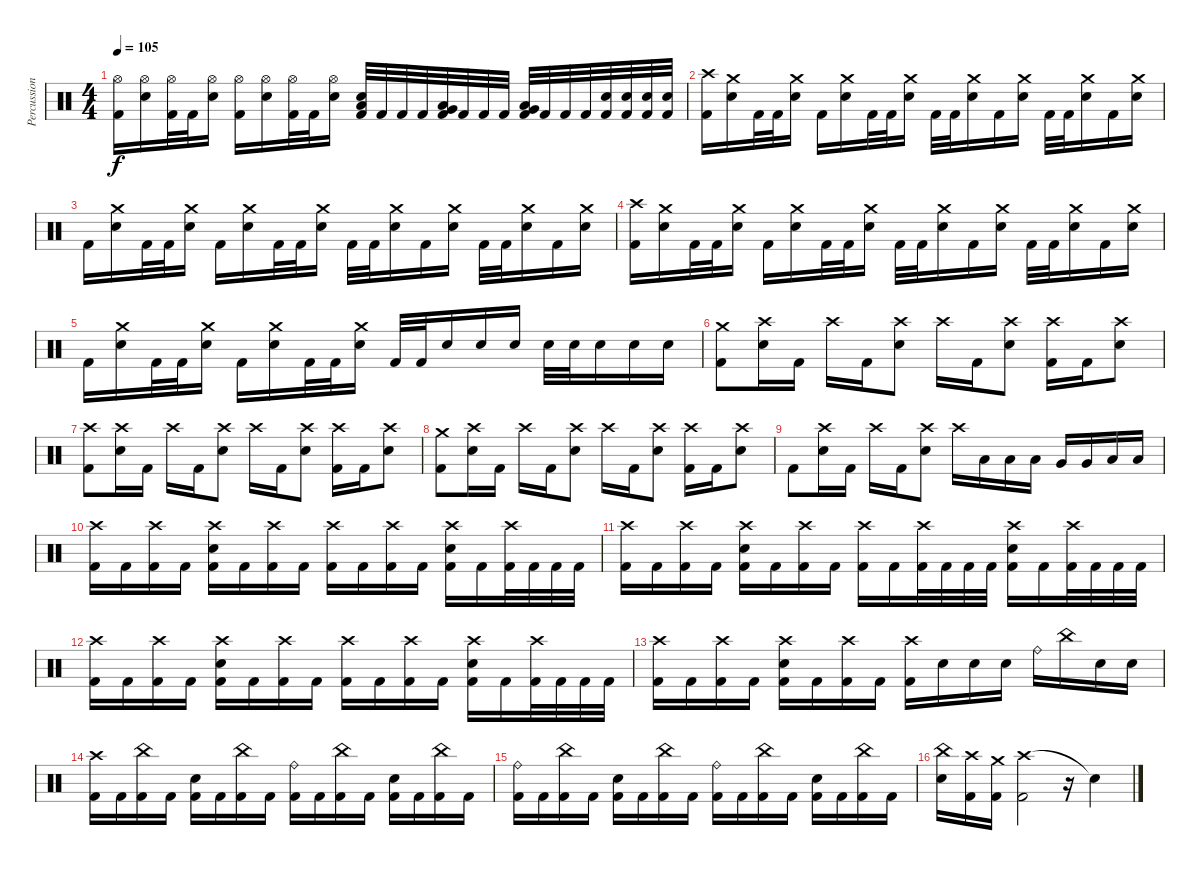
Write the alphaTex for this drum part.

\track ("Percussions" "Percussion") {instrument percussion}
\staff {score}
\articulation defaults
\ts (4 4)
\tempo 105
\clef neutral
\ks c
("Hi-Hat (open)" "Kick (hit) 2").16{dy f} ("Hi-Hat (open)" "Electric Snare (hit)").16 ("Hi-Hat (open)" "Kick (hit) 2").32 "Kick (hit) 2".32 ("Hi-Hat (open)" "Electric Snare (hit)").16 ("Hi-Hat (open)" "Kick (hit) 2").16 ("Hi-Hat (open)" "Electric Snare (hit)").16 ("Hi-Hat (open)" "Kick (hit) 2").32 "Kick (hit) 2".32 ("Hi-Hat (open)" "Electric Snare (hit)").16 ("Electric Snare (hit)" "Low Floor Tom (hit)" "Kick (hit) 2").32 "Kick (hit) 2".32 "Kick (hit) 2".32 "Kick (hit) 2".32 ("Low Tom (hit)" "Very Low Tom (hit)" "Kick (hit) 2").32 "Kick (hit) 2".32 "Kick (hit) 2".32 "Kick (hit) 2".32 ("Very Low Tom (hit)" "Low Floor Tom (hit)" "Kick (hit) 2").32 "Kick (hit) 2".32 "Kick (hit) 2".32 "Kick (hit) 2".32 ("Electric Snare (hit)" "Kick (hit) 2").32 ("Electric Snare (hit)" "Kick (hit) 2").32 ("Electric Snare (hit)" "Kick (hit) 2").32 ("Electric Snare (hit)" "Kick (hit) 2").32 |
("Crash high (hit)" "Kick (hit) 2").16 ("Crash medium (hit)" "Electric Snare (hit)").16 "Kick (hit) 2".32 "Kick (hit) 2".32 ("Crash medium (hit)" "Electric Snare (hit)").16 "Kick (hit) 2".16 ("Crash medium (hit)" "Electric Snare (hit)").16 "Kick (hit) 2".32 "Kick (hit) 2".32 ("Crash medium (hit)" "Electric Snare (hit)").16 "Kick (hit) 2".32 "Kick (hit) 2".32 ("Crash medium (hit)" "Electric Snare (hit)").16 "Kick (hit) 2".16 ("Crash medium (hit)" "Electric Snare (hit)").16 "Kick (hit) 2".32 "Kick (hit) 2".32 ("Crash medium (hit)" "Electric Snare (hit)").16 "Kick (hit) 2".16 ("Crash medium (hit)" "Electric Snare (hit)").16 |
"Kick (hit) 2".16 ("Crash medium (hit)" "Electric Snare (hit)").16 "Kick (hit) 2".32 "Kick (hit) 2".32 ("Crash medium (hit)" "Electric Snare (hit)").16 "Kick (hit) 2".16 ("Crash medium (hit)" "Electric Snare (hit)").16 "Kick (hit) 2".32 "Kick (hit) 2".32 ("Crash medium (hit)" "Electric Snare (hit)").16 "Kick (hit) 2".32 "Kick (hit) 2".32 ("Crash medium (hit)" "Electric Snare (hit)").16 "Kick (hit) 2".16 ("Crash medium (hit)" "Electric Snare (hit)").16 "Kick (hit) 2".32 "Kick (hit) 2".32 ("Crash medium (hit)" "Electric Snare (hit)").16 "Kick (hit) 2".16 ("Crash medium (hit)" "Electric Snare (hit)").16 |
("Crash high (hit)" "Kick (hit) 2").16 ("Crash medium (hit)" "Electric Snare (hit)").16 "Kick (hit) 2".32 "Kick (hit) 2".32 ("Crash medium (hit)" "Electric Snare (hit)").16 "Kick (hit) 2".16 ("Crash medium (hit)" "Electric Snare (hit)").16 "Kick (hit) 2".32 "Kick (hit) 2".32 ("Crash medium (hit)" "Electric Snare (hit)").16 "Kick (hit) 2".32 "Kick (hit) 2".32 ("Crash medium (hit)" "Electric Snare (hit)").16 "Kick (hit) 2".16 ("Crash medium (hit)" "Electric Snare (hit)").16 "Kick (hit) 2".32 "Kick (hit) 2".32 ("Crash medium (hit)" "Electric Snare (hit)").16 "Kick (hit) 2".16 ("Crash medium (hit)" "Electric Snare (hit)").16 |
"Kick (hit) 2".16 ("Crash medium (hit)" "Electric Snare (hit)").16 "Kick (hit) 2".32 "Kick (hit) 2".32 ("Crash medium (hit)" "Electric Snare (hit)").16 "Kick (hit) 2".16 ("Crash medium (hit)" "Electric Snare (hit)").16 "Kick (hit) 2".32 "Kick (hit) 2".32 ("Crash medium (hit)" "Electric Snare (hit)").16 "Kick (hit) 2".32 "Kick (hit) 2".32 "Electric Snare (hit)".16 "Electric Snare (hit)".16 "Electric Snare (hit)".16 "Electric Snare (hit)".32 "Electric Snare (hit)".32 "Electric Snare (hit)".16 "Electric Snare (hit)".16 "Electric Snare (hit)".16 |
("Crash medium (hit)" "Kick (hit) 2").8 ("Crash high (hit)" "Electric Snare (hit)").16 "Kick (hit) 2".16 "Crash high (hit)".16 "Kick (hit) 2".16 ("Crash high (hit)" "Electric Snare (hit)").8 "Crash high (hit)".16 "Kick (hit) 2".16 ("Crash high (hit)" "Electric Snare (hit)").8 ("Crash high (hit)" "Kick (hit) 2").16 "Kick (hit) 2".16 ("Crash high (hit)" "Electric Snare (hit)").8 |
("Crash high (hit)" "Kick (hit) 2").8 ("Crash high (hit)" "Electric Snare (hit)").16 "Kick (hit) 2".16 "Crash high (hit)".16 "Kick (hit) 2".16 ("Crash high (hit)" "Electric Snare (hit)").8 "Crash high (hit)".16 "Kick (hit) 2".16 ("Crash high (hit)" "Electric Snare (hit)").8 ("Crash high (hit)" "Kick (hit) 2").16 "Kick (hit) 2".16 ("Crash high (hit)" "Electric Snare (hit)").8 |
("Crash medium (hit)" "Kick (hit) 2").8 ("Crash high (hit)" "Electric Snare (hit)").16 "Kick (hit) 2".16 "Crash high (hit)".16 "Kick (hit) 2".16 ("Crash high (hit)" "Electric Snare (hit)").8 "Crash high (hit)".16 "Kick (hit) 2".16 ("Crash high (hit)" "Electric Snare (hit)").8 ("Crash high (hit)" "Kick (hit) 2").16 "Kick (hit) 2".16 ("Crash high (hit)" "Electric Snare (hit)").8 |
"Kick (hit) 2".8 ("Crash high (hit)" "Electric Snare (hit)").16 "Kick (hit) 2".16 "Crash high (hit)".16 "Kick (hit) 2".16 ("Crash high (hit)" "Electric Snare (hit)").8 "Crash high (hit)".16 "Low Tom (hit)".16 "Low Tom (hit)".16 "Low Tom (hit)".16 "Very Low Tom (hit)".16 "Very Low Tom (hit)".16 "Low Floor Tom (hit)".16 "Low Floor Tom (hit)".16 |
("Crash high (hit)" "Kick (hit) 2").16 "Kick (hit) 2".16 ("Crash high (hit)" "Kick (hit) 2").16 "Kick (hit) 2".16 ("Crash high (hit)" "Electric Snare (hit)" "Kick (hit) 2").16 "Kick (hit) 2".16 ("Crash high (hit)" "Kick (hit) 2").16 "Kick (hit) 2".16 ("Crash high (hit)" "Kick (hit) 2").16 "Kick (hit) 2".16 ("Crash high (hit)" "Kick (hit) 2").16 "Kick (hit) 2".16 ("Crash high (hit)" "Electric Snare (hit)" "Kick (hit) 2").16 "Kick (hit) 2".16 ("Crash high (hit)" "Kick (hit) 2").32 "Kick (hit) 2".32 "Kick (hit) 2".32 "Kick (hit) 2".32 |
("Crash high (hit)" "Kick (hit) 2").16 "Kick (hit) 2".16 ("Crash high (hit)" "Kick (hit) 2").16 "Kick (hit) 2".16 ("Crash high (hit)" "Electric Snare (hit)" "Kick (hit) 2").16 "Kick (hit) 2".16 ("Crash high (hit)" "Kick (hit) 2").16 "Kick (hit) 2".16 ("Crash high (hit)" "Kick (hit) 2").16 "Kick (hit) 2".16 ("Crash high (hit)" "Kick (hit) 2").32 "Kick (hit) 2".32 "Kick (hit) 2".32 "Kick (hit) 2".32 ("Crash high (hit)" "Electric Snare (hit)" "Kick (hit) 2").16 "Kick (hit) 2".16 ("Crash high (hit)" "Kick (hit) 2").32 "Kick (hit) 2".32 "Kick (hit) 2".32 "Kick (hit) 2".32 |
("Crash high (hit)" "Kick (hit) 2").16 "Kick (hit) 2".16 ("Crash high (hit)" "Kick (hit) 2").16 "Kick (hit) 2".16 ("Crash high (hit)" "Electric Snare (hit)" "Kick (hit) 2").16 "Kick (hit) 2".16 ("Crash high (hit)" "Kick (hit) 2").16 "Kick (hit) 2".16 ("Crash high (hit)" "Kick (hit) 2").16 "Kick (hit) 2".16 ("Crash high (hit)" "Kick (hit) 2").16 "Kick (hit) 2".16 ("Crash high (hit)" "Electric Snare (hit)" "Kick (hit) 2").16 "Kick (hit) 2".16 ("Crash high (hit)" "Kick (hit) 2").32 "Kick (hit) 2".32 "Kick (hit) 2".32 "Kick (hit) 2".32 |
("Crash high (hit)" "Kick (hit) 2").16 "Kick (hit) 2".16 ("Crash high (hit)" "Kick (hit) 2").16 "Kick (hit) 2".16 ("Crash high (hit)" "Electric Snare (hit)" "Kick (hit) 2").16 "Kick (hit) 2".16 ("Crash high (hit)" "Kick (hit) 2").16 "Kick (hit) 2".16 ("Crash high (hit)" "Kick (hit) 2").16 "Electric Snare (hit)".16 "Electric Snare (hit)".16 "Electric Snare (hit)".16 "Ride (bell)".16 "China (hit)".16 "Electric Snare (hit)".16 "Electric Snare (hit)".16 |
("Crash high (hit)" "Kick (hit) 2").16 "Kick (hit) 2".16 ("China (hit)" "Kick (hit) 2").16 "Kick (hit) 2".16 ("Electric Snare (hit)" "Kick (hit) 2").16 "Kick (hit) 2".16 ("China (hit)" "Kick (hit) 2").16 "Kick (hit) 2".16 ("Ride (bell)" "Kick (hit) 2").16 "Kick (hit) 2".16 ("China (hit)" "Kick (hit) 2").16 "Kick (hit) 2".16 ("Electric Snare (hit)" "Kick (hit) 2").16 "Kick (hit) 2".16 ("China (hit)" "Kick (hit) 2").16 "Kick (hit) 2".16 |
("Ride (bell)" "Kick (hit) 2").16 "Kick (hit) 2".16 ("China (hit)" "Kick (hit) 2").16 "Kick (hit) 2".16 ("Electric Snare (hit)" "Kick (hit) 2").16 "Kick (hit) 2".16 ("China (hit)" "Kick (hit) 2").16 "Kick (hit) 2".16 ("Ride (bell)" "Kick (hit) 2").16 "Kick (hit) 2".16 ("China (hit)" "Kick (hit) 2").16 "Kick (hit) 2".16 ("Electric Snare (hit)" "Kick (hit) 2").16 "Kick (hit) 2".16 ("China (hit)" "Kick (hit) 2").16 "Kick (hit) 2".16 |
("China (hit)" "Electric Snare (hit)").16 ("Crash high (hit)" "Kick (hit) 2").16 ("Crash medium (hit)" "Kick (hit) 2").16 ("Crash high (hit)" "Kick (hit) 2").2 r.16 "Snare (hit)"{t}.4
